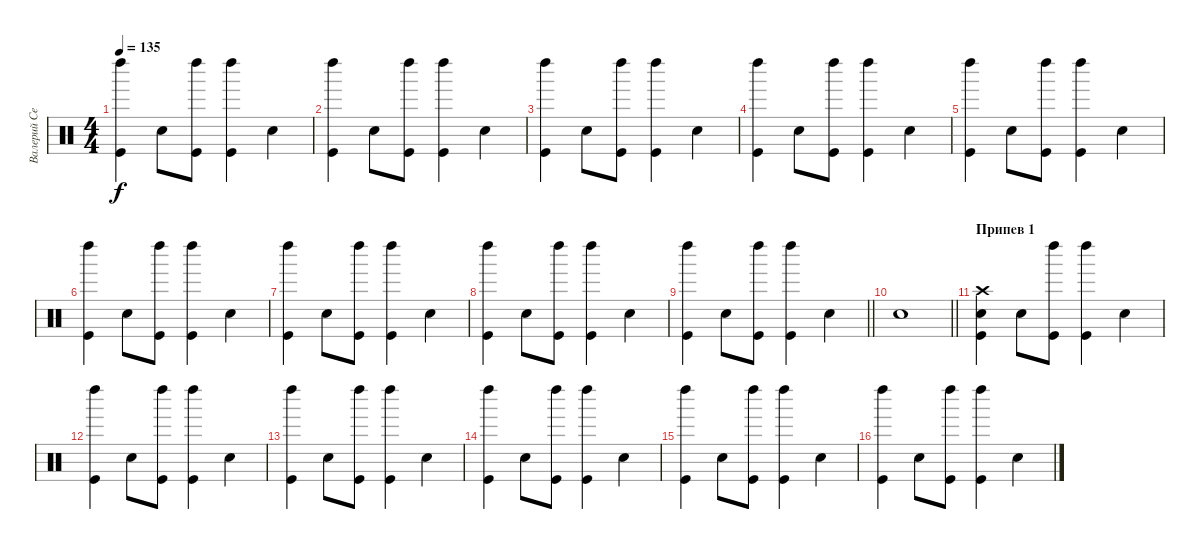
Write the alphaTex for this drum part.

\track ("Валерий Северин" "Валерий Се") {instrument percussion}
\staff {score}
\articulation defaults
\ts (4 4)
\tempo 135
\clef neutral
\ks c
("Kick (hit)" "Left Maraca (hit)").4{dy f} "Snare (hit) 2".8 ("Kick (hit)" "Left Maraca (hit)").8 ("Kick (hit)" "Left Maraca (hit)").4 "Snare (hit) 2".4 |
("Kick (hit)" "Left Maraca (hit)").4 "Snare (hit) 2".8 ("Kick (hit)" "Left Maraca (hit)").8 ("Kick (hit)" "Left Maraca (hit)").4 "Snare (hit) 2".4 |
("Kick (hit)" "Left Maraca (hit)").4 "Snare (hit) 2".8 ("Kick (hit)" "Left Maraca (hit)").8 ("Kick (hit)" "Left Maraca (hit)").4 "Snare (hit) 2".4 |
("Kick (hit)" "Left Maraca (hit)").4 "Snare (hit) 2".8 ("Kick (hit)" "Left Maraca (hit)").8 ("Kick (hit)" "Left Maraca (hit)").4 "Snare (hit) 2".4 |
("Kick (hit)" "Left Maraca (hit)").4 "Snare (hit) 2".8 ("Kick (hit)" "Left Maraca (hit)").8 ("Kick (hit)" "Left Maraca (hit)").4 "Snare (hit) 2".4 |
("Kick (hit)" "Left Maraca (hit)").4 "Snare (hit) 2".8 ("Kick (hit)" "Left Maraca (hit)").8 ("Kick (hit)" "Left Maraca (hit)").4 "Snare (hit) 2".4 |
("Kick (hit)" "Left Maraca (hit)").4 "Snare (hit) 2".8 ("Kick (hit)" "Left Maraca (hit)").8 ("Kick (hit)" "Left Maraca (hit)").4 "Snare (hit) 2".4 |
("Kick (hit)" "Left Maraca (hit)").4 "Snare (hit) 2".8 ("Kick (hit)" "Left Maraca (hit)").8 ("Kick (hit)" "Left Maraca (hit)").4 "Snare (hit) 2".4 |
\barLineRight lightlight
("Kick (hit)" "Left Maraca (hit)").4 "Snare (hit) 2".8 ("Kick (hit)" "Left Maraca (hit)").8 ("Kick (hit)" "Left Maraca (hit)").4 "Snare (hit) 2".4 |
\barLineRight lightlight "Snare (hit) 2".1
|
\section ("" "Припев 1")
("Crash high (hit)" "Kick (hit)" "Snare (hit) 2").4 "Snare (hit) 2".8 ("Kick (hit)" "Left Maraca (hit)").8 ("Kick (hit)" "Left Maraca (hit)").4 "Snare (hit) 2".4 |
("Kick (hit)" "Left Maraca (hit)").4 "Snare (hit) 2".8 ("Kick (hit)" "Left Maraca (hit)").8 ("Kick (hit)" "Left Maraca (hit)").4 "Snare (hit) 2".4 |
("Kick (hit)" "Left Maraca (hit)").4 "Snare (hit) 2".8 ("Kick (hit)" "Left Maraca (hit)").8 ("Kick (hit)" "Left Maraca (hit)").4 "Snare (hit) 2".4 |
("Kick (hit)" "Left Maraca (hit)").4 "Snare (hit) 2".8 ("Kick (hit)" "Left Maraca (hit)").8 ("Kick (hit)" "Left Maraca (hit)").4 "Snare (hit) 2".4 |
("Kick (hit)" "Left Maraca (hit)").4 "Snare (hit) 2".8 ("Kick (hit)" "Left Maraca (hit)").8 ("Kick (hit)" "Left Maraca (hit)").4 "Snare (hit) 2".4 |
("Kick (hit)" "Left Maraca (hit)").4 "Snare (hit) 2".8 ("Kick (hit)" "Left Maraca (hit)").8 ("Kick (hit)" "Left Maraca (hit)").4 "Snare (hit) 2".4
